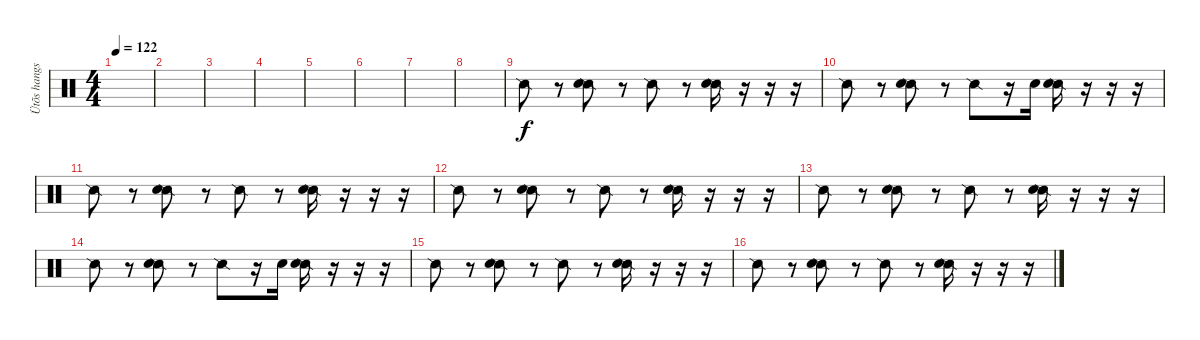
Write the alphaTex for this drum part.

\track ("Ütõs hangszer" "Ütõs hangs") {instrument percussion}
\staff {score}
\articulation defaults
\ts (4 4)
\tempo 122
\clef neutral
\ks c
|
|
|
|
|
|
|
|
"Snare (side stick) 2".8 r.8 ("Snare (side stick) 2" "Hand Clap (hit)").8 r.8 "Snare (side stick) 2".8 r.8 ("Snare (side stick) 2" "Hand Clap (hit)").16 r.16 r.16 r.16 |
"Snare (side stick) 2".8 r.8 ("Snare (side stick) 2" "Hand Clap (hit)").8 r.8 "Snare (side stick) 2".8 r.16 "Hand Clap (hit)".16 ("Snare (side stick) 2" "Hand Clap (hit)").16 r.16 r.16 r.16 |
"Snare (side stick) 2".8 r.8 ("Snare (side stick) 2" "Hand Clap (hit)").8 r.8 "Snare (side stick) 2".8 r.8 ("Snare (side stick) 2" "Hand Clap (hit)").16 r.16 r.16 r.16 |
"Snare (side stick) 2".8 r.8 ("Snare (side stick) 2" "Hand Clap (hit)").8 r.8 "Snare (side stick) 2".8 r.8 ("Snare (side stick) 2" "Hand Clap (hit)").16 r.16 r.16 r.16 |
"Snare (side stick) 2".8 r.8 ("Snare (side stick) 2" "Hand Clap (hit)").8 r.8 "Snare (side stick) 2".8 r.8 ("Snare (side stick) 2" "Hand Clap (hit)").16 r.16 r.16 r.16 |
"Snare (side stick) 2".8 r.8 ("Snare (side stick) 2" "Hand Clap (hit)").8 r.8 "Snare (side stick) 2".8 r.16 "Hand Clap (hit)".16 ("Snare (side stick) 2" "Hand Clap (hit)").16 r.16 r.16 r.16 |
"Snare (side stick) 2".8 r.8 ("Snare (side stick) 2" "Hand Clap (hit)").8 r.8 "Snare (side stick) 2".8 r.8 ("Snare (side stick) 2" "Hand Clap (hit)").16 r.16 r.16 r.16 |
"Snare (side stick) 2".8 r.8 ("Snare (side stick) 2" "Hand Clap (hit)").8 r.8 "Snare (side stick) 2".8 r.8 ("Snare (side stick) 2" "Hand Clap (hit)").16 r.16 r.16 r.16
